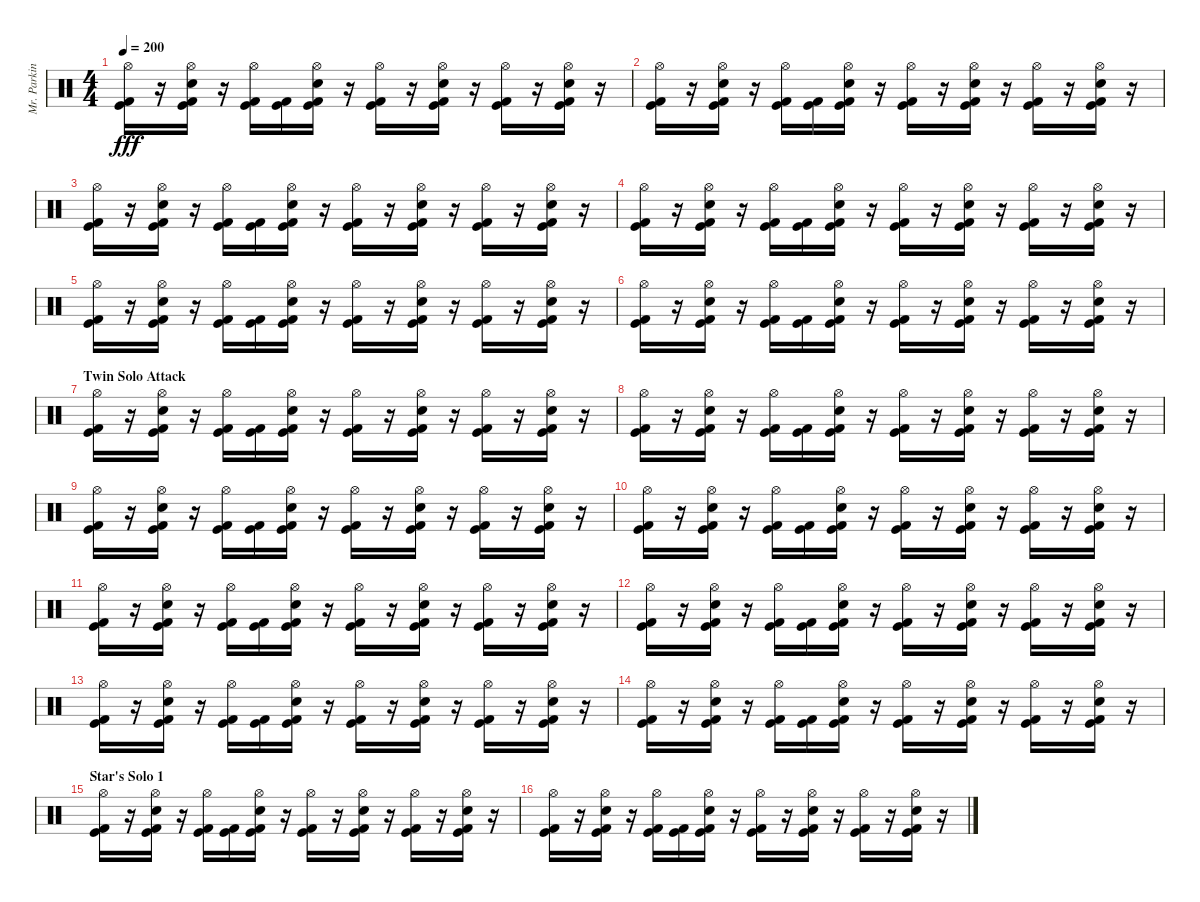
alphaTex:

\track ("Mr. Parkinson" "Mr. Parkin") {instrument percussion}
\staff {score}
\articulation defaults
\ts (4 4)
\tempo 200
\clef neutral
\ks c
("Hi-Hat (open)" "Kick (hit)" "Kick (hit) 2").16{dy fff} r.16 ("Hi-Hat (open)" "Electric Snare (hit)" "Kick (hit)" "Kick (hit) 2").16 r.16 ("Hi-Hat (open)" "Kick (hit)" "Kick (hit) 2").16 ("Kick (hit)" "Kick (hit) 2").16 ("Hi-Hat (open)" "Electric Snare (hit)" "Kick (hit)" "Kick (hit) 2").16 r.16 ("Hi-Hat (open)" "Kick (hit)" "Kick (hit) 2").16 r.16 ("Hi-Hat (open)" "Electric Snare (hit)" "Kick (hit)" "Kick (hit) 2").16 r.16 ("Hi-Hat (open)" "Kick (hit)" "Kick (hit) 2").16 r.16 ("Hi-Hat (open)" "Electric Snare (hit)" "Kick (hit)" "Kick (hit) 2").16 r.16 |
("Hi-Hat (open)" "Kick (hit)" "Kick (hit) 2").16 r.16 ("Hi-Hat (open)" "Electric Snare (hit)" "Kick (hit)" "Kick (hit) 2").16 r.16 ("Hi-Hat (open)" "Kick (hit)" "Kick (hit) 2").16 ("Kick (hit)" "Kick (hit) 2").16 ("Hi-Hat (open)" "Electric Snare (hit)" "Kick (hit)" "Kick (hit) 2").16 r.16 ("Hi-Hat (open)" "Kick (hit)" "Kick (hit) 2").16 r.16 ("Hi-Hat (open)" "Electric Snare (hit)" "Kick (hit)" "Kick (hit) 2").16 r.16 ("Hi-Hat (open)" "Kick (hit)" "Kick (hit) 2").16 r.16 ("Hi-Hat (open)" "Electric Snare (hit)" "Kick (hit)" "Kick (hit) 2").16 r.16 |
("Hi-Hat (open)" "Kick (hit)" "Kick (hit) 2").16 r.16 ("Hi-Hat (open)" "Electric Snare (hit)" "Kick (hit)" "Kick (hit) 2").16 r.16 ("Hi-Hat (open)" "Kick (hit)" "Kick (hit) 2").16 ("Kick (hit)" "Kick (hit) 2").16 ("Hi-Hat (open)" "Electric Snare (hit)" "Kick (hit)" "Kick (hit) 2").16 r.16 ("Hi-Hat (open)" "Kick (hit)" "Kick (hit) 2").16 r.16 ("Hi-Hat (open)" "Electric Snare (hit)" "Kick (hit)" "Kick (hit) 2").16 r.16 ("Hi-Hat (open)" "Kick (hit)" "Kick (hit) 2").16 r.16 ("Hi-Hat (open)" "Electric Snare (hit)" "Kick (hit)" "Kick (hit) 2").16 r.16 |
("Hi-Hat (open)" "Kick (hit)" "Kick (hit) 2").16 r.16 ("Hi-Hat (open)" "Electric Snare (hit)" "Kick (hit)" "Kick (hit) 2").16 r.16 ("Hi-Hat (open)" "Kick (hit)" "Kick (hit) 2").16 ("Kick (hit)" "Kick (hit) 2").16 ("Hi-Hat (open)" "Electric Snare (hit)" "Kick (hit)" "Kick (hit) 2").16 r.16 ("Hi-Hat (open)" "Kick (hit)" "Kick (hit) 2").16 r.16 ("Hi-Hat (open)" "Electric Snare (hit)" "Kick (hit)" "Kick (hit) 2").16 r.16 ("Hi-Hat (open)" "Kick (hit)" "Kick (hit) 2").16 r.16 ("Hi-Hat (open)" "Electric Snare (hit)" "Kick (hit)" "Kick (hit) 2").16 r.16 |
("Hi-Hat (open)" "Kick (hit)" "Kick (hit) 2").16 r.16 ("Hi-Hat (open)" "Electric Snare (hit)" "Kick (hit)" "Kick (hit) 2").16 r.16 ("Hi-Hat (open)" "Kick (hit)" "Kick (hit) 2").16 ("Kick (hit)" "Kick (hit) 2").16 ("Hi-Hat (open)" "Electric Snare (hit)" "Kick (hit)" "Kick (hit) 2").16 r.16 ("Hi-Hat (open)" "Kick (hit)" "Kick (hit) 2").16 r.16 ("Hi-Hat (open)" "Electric Snare (hit)" "Kick (hit)" "Kick (hit) 2").16 r.16 ("Hi-Hat (open)" "Kick (hit)" "Kick (hit) 2").16 r.16 ("Hi-Hat (open)" "Electric Snare (hit)" "Kick (hit)" "Kick (hit) 2").16 r.16 |
("Hi-Hat (open)" "Kick (hit)" "Kick (hit) 2").16 r.16 ("Hi-Hat (open)" "Electric Snare (hit)" "Kick (hit)" "Kick (hit) 2").16 r.16 ("Hi-Hat (open)" "Kick (hit)" "Kick (hit) 2").16 ("Kick (hit)" "Kick (hit) 2").16 ("Hi-Hat (open)" "Electric Snare (hit)" "Kick (hit)" "Kick (hit) 2").16 r.16 ("Hi-Hat (open)" "Kick (hit)" "Kick (hit) 2").16 r.16 ("Hi-Hat (open)" "Electric Snare (hit)" "Kick (hit)" "Kick (hit) 2").16 r.16 ("Hi-Hat (open)" "Kick (hit)" "Kick (hit) 2").16 r.16 ("Hi-Hat (open)" "Electric Snare (hit)" "Kick (hit)" "Kick (hit) 2").16 r.16 |
\section ("" "Twin Solo Attack")
("Hi-Hat (open)" "Kick (hit)" "Kick (hit) 2").16 r.16 ("Hi-Hat (open)" "Electric Snare (hit)" "Kick (hit)" "Kick (hit) 2").16 r.16 ("Hi-Hat (open)" "Kick (hit)" "Kick (hit) 2").16 ("Kick (hit)" "Kick (hit) 2").16 ("Hi-Hat (open)" "Electric Snare (hit)" "Kick (hit)" "Kick (hit) 2").16 r.16 ("Hi-Hat (open)" "Kick (hit)" "Kick (hit) 2").16 r.16 ("Hi-Hat (open)" "Electric Snare (hit)" "Kick (hit)" "Kick (hit) 2").16 r.16 ("Hi-Hat (open)" "Kick (hit)" "Kick (hit) 2").16 r.16 ("Hi-Hat (open)" "Electric Snare (hit)" "Kick (hit)" "Kick (hit) 2").16 r.16 |
("Hi-Hat (open)" "Kick (hit)" "Kick (hit) 2").16 r.16 ("Hi-Hat (open)" "Electric Snare (hit)" "Kick (hit)" "Kick (hit) 2").16 r.16 ("Hi-Hat (open)" "Kick (hit)" "Kick (hit) 2").16 ("Kick (hit)" "Kick (hit) 2").16 ("Hi-Hat (open)" "Electric Snare (hit)" "Kick (hit)" "Kick (hit) 2").16 r.16 ("Hi-Hat (open)" "Kick (hit)" "Kick (hit) 2").16 r.16 ("Hi-Hat (open)" "Electric Snare (hit)" "Kick (hit)" "Kick (hit) 2").16 r.16 ("Hi-Hat (open)" "Kick (hit)" "Kick (hit) 2").16 r.16 ("Hi-Hat (open)" "Electric Snare (hit)" "Kick (hit)" "Kick (hit) 2").16 r.16 |
("Hi-Hat (open)" "Kick (hit)" "Kick (hit) 2").16 r.16 ("Hi-Hat (open)" "Electric Snare (hit)" "Kick (hit)" "Kick (hit) 2").16 r.16 ("Hi-Hat (open)" "Kick (hit)" "Kick (hit) 2").16 ("Kick (hit)" "Kick (hit) 2").16 ("Hi-Hat (open)" "Electric Snare (hit)" "Kick (hit)" "Kick (hit) 2").16 r.16 ("Hi-Hat (open)" "Kick (hit)" "Kick (hit) 2").16 r.16 ("Hi-Hat (open)" "Electric Snare (hit)" "Kick (hit)" "Kick (hit) 2").16 r.16 ("Hi-Hat (open)" "Kick (hit)" "Kick (hit) 2").16 r.16 ("Hi-Hat (open)" "Electric Snare (hit)" "Kick (hit)" "Kick (hit) 2").16 r.16 |
("Hi-Hat (open)" "Kick (hit)" "Kick (hit) 2").16 r.16 ("Hi-Hat (open)" "Electric Snare (hit)" "Kick (hit)" "Kick (hit) 2").16 r.16 ("Hi-Hat (open)" "Kick (hit)" "Kick (hit) 2").16 ("Kick (hit)" "Kick (hit) 2").16 ("Hi-Hat (open)" "Electric Snare (hit)" "Kick (hit)" "Kick (hit) 2").16 r.16 ("Hi-Hat (open)" "Kick (hit)" "Kick (hit) 2").16 r.16 ("Hi-Hat (open)" "Electric Snare (hit)" "Kick (hit)" "Kick (hit) 2").16 r.16 ("Hi-Hat (open)" "Kick (hit)" "Kick (hit) 2").16 r.16 ("Hi-Hat (open)" "Electric Snare (hit)" "Kick (hit)" "Kick (hit) 2").16 r.16 |
("Hi-Hat (open)" "Kick (hit)" "Kick (hit) 2").16 r.16 ("Hi-Hat (open)" "Electric Snare (hit)" "Kick (hit)" "Kick (hit) 2").16 r.16 ("Hi-Hat (open)" "Kick (hit)" "Kick (hit) 2").16 ("Kick (hit)" "Kick (hit) 2").16 ("Hi-Hat (open)" "Electric Snare (hit)" "Kick (hit)" "Kick (hit) 2").16 r.16 ("Hi-Hat (open)" "Kick (hit)" "Kick (hit) 2").16 r.16 ("Hi-Hat (open)" "Electric Snare (hit)" "Kick (hit)" "Kick (hit) 2").16 r.16 ("Hi-Hat (open)" "Kick (hit)" "Kick (hit) 2").16 r.16 ("Hi-Hat (open)" "Electric Snare (hit)" "Kick (hit)" "Kick (hit) 2").16 r.16 |
("Hi-Hat (open)" "Kick (hit)" "Kick (hit) 2").16 r.16 ("Hi-Hat (open)" "Electric Snare (hit)" "Kick (hit)" "Kick (hit) 2").16 r.16 ("Hi-Hat (open)" "Kick (hit)" "Kick (hit) 2").16 ("Kick (hit)" "Kick (hit) 2").16 ("Hi-Hat (open)" "Electric Snare (hit)" "Kick (hit)" "Kick (hit) 2").16 r.16 ("Hi-Hat (open)" "Kick (hit)" "Kick (hit) 2").16 r.16 ("Hi-Hat (open)" "Electric Snare (hit)" "Kick (hit)" "Kick (hit) 2").16 r.16 ("Hi-Hat (open)" "Kick (hit)" "Kick (hit) 2").16 r.16 ("Hi-Hat (open)" "Electric Snare (hit)" "Kick (hit)" "Kick (hit) 2").16 r.16 |
("Hi-Hat (open)" "Kick (hit)" "Kick (hit) 2").16 r.16 ("Hi-Hat (open)" "Electric Snare (hit)" "Kick (hit)" "Kick (hit) 2").16 r.16 ("Hi-Hat (open)" "Kick (hit)" "Kick (hit) 2").16 ("Kick (hit)" "Kick (hit) 2").16 ("Hi-Hat (open)" "Electric Snare (hit)" "Kick (hit)" "Kick (hit) 2").16 r.16 ("Hi-Hat (open)" "Kick (hit)" "Kick (hit) 2").16 r.16 ("Hi-Hat (open)" "Electric Snare (hit)" "Kick (hit)" "Kick (hit) 2").16 r.16 ("Hi-Hat (open)" "Kick (hit)" "Kick (hit) 2").16 r.16 ("Hi-Hat (open)" "Electric Snare (hit)" "Kick (hit)" "Kick (hit) 2").16 r.16 |
("Hi-Hat (open)" "Kick (hit)" "Kick (hit) 2").16 r.16 ("Hi-Hat (open)" "Electric Snare (hit)" "Kick (hit)" "Kick (hit) 2").16 r.16 ("Hi-Hat (open)" "Kick (hit)" "Kick (hit) 2").16 ("Kick (hit)" "Kick (hit) 2").16 ("Hi-Hat (open)" "Electric Snare (hit)" "Kick (hit)" "Kick (hit) 2").16 r.16 ("Hi-Hat (open)" "Kick (hit)" "Kick (hit) 2").16 r.16 ("Hi-Hat (open)" "Electric Snare (hit)" "Kick (hit)" "Kick (hit) 2").16 r.16 ("Hi-Hat (open)" "Kick (hit)" "Kick (hit) 2").16 r.16 ("Hi-Hat (open)" "Electric Snare (hit)" "Kick (hit)" "Kick (hit) 2").16 r.16 |
\section ("" "Star's Solo 1")
("Hi-Hat (open)" "Kick (hit)" "Kick (hit) 2").16 r.16 ("Hi-Hat (open)" "Electric Snare (hit)" "Kick (hit)" "Kick (hit) 2").16 r.16 ("Hi-Hat (open)" "Kick (hit)" "Kick (hit) 2").16 ("Kick (hit)" "Kick (hit) 2").16 ("Hi-Hat (open)" "Electric Snare (hit)" "Kick (hit)" "Kick (hit) 2").16 r.16 ("Hi-Hat (open)" "Kick (hit)" "Kick (hit) 2").16 r.16 ("Hi-Hat (open)" "Electric Snare (hit)" "Kick (hit)" "Kick (hit) 2").16 r.16 ("Hi-Hat (open)" "Kick (hit)" "Kick (hit) 2").16 r.16 ("Hi-Hat (open)" "Electric Snare (hit)" "Kick (hit)" "Kick (hit) 2").16 r.16 |
("Hi-Hat (open)" "Kick (hit)" "Kick (hit) 2").16 r.16 ("Hi-Hat (open)" "Electric Snare (hit)" "Kick (hit)" "Kick (hit) 2").16 r.16 ("Hi-Hat (open)" "Kick (hit)" "Kick (hit) 2").16 ("Kick (hit)" "Kick (hit) 2").16 ("Hi-Hat (open)" "Electric Snare (hit)" "Kick (hit)" "Kick (hit) 2").16 r.16 ("Hi-Hat (open)" "Kick (hit)" "Kick (hit) 2").16 r.16 ("Hi-Hat (open)" "Electric Snare (hit)" "Kick (hit)" "Kick (hit) 2").16 r.16 ("Hi-Hat (open)" "Kick (hit)" "Kick (hit) 2").16 r.16 ("Hi-Hat (open)" "Electric Snare (hit)" "Kick (hit)" "Kick (hit) 2").16 r.16
